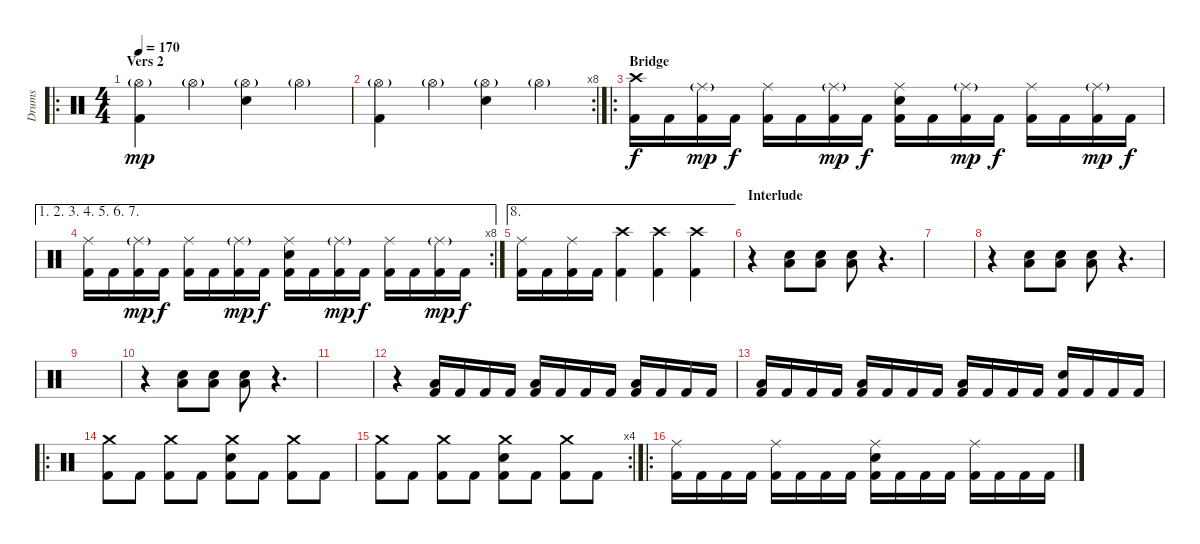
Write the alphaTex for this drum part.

\track ("Drums" "Drums") {instrument percussion}
\staff {score}
\articulation defaults
\ro
\ts (4 4)
\section ("" "Vers 2")
\tempo 170
\clef neutral
\ks c
("Hi-Hat (open)"{g} "Kick (hit) 2").4{dy mp} "Hi-Hat (open)"{g}.4 ("Hi-Hat (open)"{g} "Electric Snare (hit)").4 "Hi-Hat (open)"{g}.4 |
\rc 8
("Hi-Hat (open)"{g} "Kick (hit) 2").4 "Hi-Hat (open)"{g}.4 ("Hi-Hat (open)"{g} "Electric Snare (hit)").4 "Hi-Hat (open)"{g}.4 |
\ro
\section ("" "Bridge")
("Crash high (hit)" "Kick (hit) 2").16{dy f} "Kick (hit) 2".16 ("Ride (middle)"{g} "Kick (hit) 2").16{dy mp} "Kick (hit) 2".16{dy f} ("Ride (middle)" "Kick (hit) 2").16 "Kick (hit) 2".16 ("Ride (middle)"{g} "Kick (hit) 2").16{dy mp} "Kick (hit) 2".16{dy f} ("Ride (middle)" "Electric Snare (hit)" "Kick (hit) 2").16 "Kick (hit) 2".16 ("Ride (middle)"{g} "Kick (hit) 2").16{dy mp} "Kick (hit) 2".16{dy f} ("Ride (middle)" "Kick (hit) 2").16 "Kick (hit) 2".16 ("Ride (middle)"{g} "Kick (hit) 2").16{dy mp} "Kick (hit) 2".16{dy f} |
\ae (1 2 3 4 5 6 7)
\rc 8
("Ride (middle)" "Kick (hit) 2").16 "Kick (hit) 2".16 ("Ride (middle)"{g} "Kick (hit) 2").16{dy mp} "Kick (hit) 2".16{dy f} ("Ride (middle)" "Kick (hit) 2").16 "Kick (hit) 2".16 ("Ride (middle)"{g} "Kick (hit) 2").16{dy mp} "Kick (hit) 2".16{dy f} ("Ride (middle)" "Electric Snare (hit)" "Kick (hit) 2").16 "Kick (hit) 2".16 ("Ride (middle)"{g} "Kick (hit) 2").16{dy mp} "Kick (hit) 2".16{dy f} ("Ride (middle)" "Kick (hit) 2").16 "Kick (hit) 2".16 ("Ride (middle)"{g} "Kick (hit) 2").16{dy mp} "Kick (hit) 2".16{dy f} |
\ae 8
("Ride (middle)" "Kick (hit) 2").16 "Kick (hit) 2".16 ("Ride (middle)" "Kick (hit) 2").16 "Kick (hit) 2".16 ("Crash high (hit)" "Kick (hit) 2").4 ("Crash high (hit)" "Kick (hit) 2").4 ("Crash high (hit)" "Kick (hit) 2").4 |
\section ("" "Interlude")
r.4 ("Electric Snare (hit)" "Low Tom (hit)").8 ("Electric Snare (hit)" "Low Tom (hit)").8 ("Electric Snare (hit)" "Low Tom (hit)").8 r.4{d} |
|
r.4 ("Electric Snare (hit)" "Low Tom (hit)").8 ("Electric Snare (hit)" "Low Tom (hit)").8 ("Electric Snare (hit)" "Low Tom (hit)").8 r.4{d} |
|
r.4 ("Electric Snare (hit)" "Low Tom (hit)").8 ("Electric Snare (hit)" "Low Tom (hit)").8 ("Electric Snare (hit)" "Low Tom (hit)").8 r.4{d} |
|
r.4 ("Low Tom (hit)" "Kick (hit) 2").16 "Kick (hit) 2".16 "Kick (hit) 2".16 "Kick (hit) 2".16 ("Low Tom (hit)" "Kick (hit) 2").16 "Kick (hit) 2".16 "Kick (hit) 2".16 "Kick (hit) 2".16 ("Low Tom (hit)" "Kick (hit) 2").16 "Kick (hit) 2".16 "Kick (hit) 2".16 "Kick (hit) 2".16 |
("Low Tom (hit)" "Kick (hit) 2").16 "Kick (hit) 2".16 "Kick (hit) 2".16 "Kick (hit) 2".16 ("Low Tom (hit)" "Kick (hit) 2").16 "Kick (hit) 2".16 "Kick (hit) 2".16 "Kick (hit) 2".16 ("Low Tom (hit)" "Kick (hit) 2").16 "Kick (hit) 2".16 "Kick (hit) 2".16 "Kick (hit) 2".16 ("Electric Snare (hit)" "Kick (hit) 2").16 "Kick (hit) 2".16 "Kick (hit) 2".16 "Kick (hit) 2".16 |
\ro
("Crash medium (hit)" "Kick (hit) 2").8 "Kick (hit) 2".8 ("Crash medium (hit)" "Kick (hit) 2").8 "Kick (hit) 2".8 ("Crash medium (hit)" "Electric Snare (hit)" "Kick (hit) 2").8 "Kick (hit) 2".8 ("Crash medium (hit)" "Kick (hit) 2").8 "Kick (hit) 2".8 |
\rc 4
("Crash medium (hit)" "Kick (hit) 2").8 "Kick (hit) 2".8 ("Crash medium (hit)" "Kick (hit) 2").8 "Kick (hit) 2".8 ("Crash medium (hit)" "Electric Snare (hit)" "Kick (hit) 2").8 "Kick (hit) 2".8 ("Crash medium (hit)" "Kick (hit) 2").8 "Kick (hit) 2".8 |
\ro
("Ride (middle)" "Kick (hit) 2").16 "Kick (hit) 2".16 "Kick (hit) 2".16 "Kick (hit) 2".16 ("Ride (middle)" "Kick (hit) 2").16 "Kick (hit) 2".16 "Kick (hit) 2".16 "Kick (hit) 2".16 ("Ride (middle)" "Electric Snare (hit)" "Kick (hit) 2").16 "Kick (hit) 2".16 "Kick (hit) 2".16 "Kick (hit) 2".16 ("Ride (middle)" "Kick (hit) 2").16 "Kick (hit) 2".16 "Kick (hit) 2".16 "Kick (hit) 2".16
